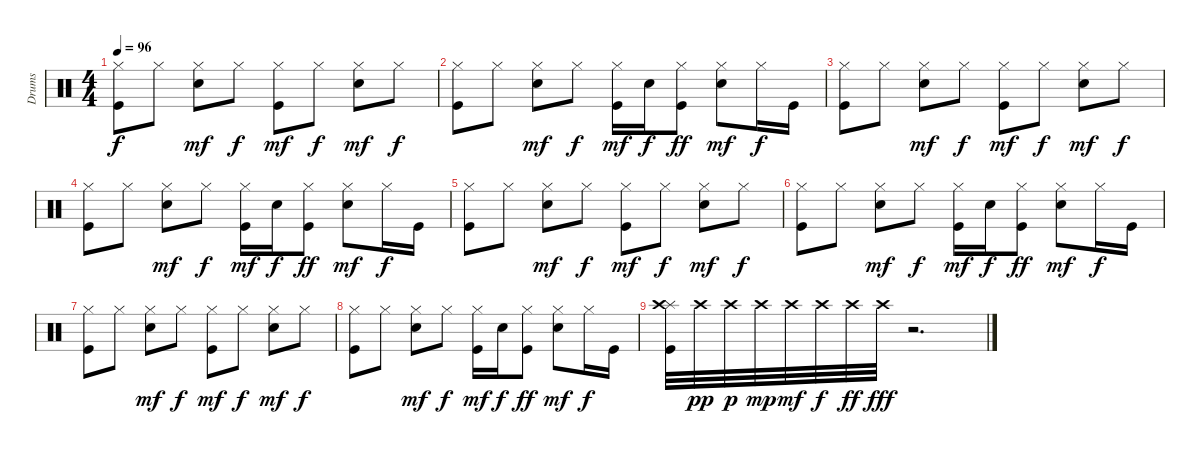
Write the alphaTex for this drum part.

\track ("Drums" "Drums") {instrument percussion}
\staff {score}
\articulation defaults
\ts (4 4)
\tempo 96
\clef neutral
\ks c
("Kick (hit)" "Hi-Hat (closed)").8{dy f} "Hi-Hat (closed)".8 ("Hi-Hat (closed)" "Electric Snare (hit)").8{dy mf} "Hi-Hat (closed)".8{dy f} ("Kick (hit)" "Hi-Hat (closed)").8{dy mf} "Hi-Hat (closed)".8{dy f} ("Hi-Hat (closed)" "Electric Snare (hit)").8{dy mf} "Hi-Hat (closed)".8{dy f} |
("Kick (hit)" "Hi-Hat (closed)").8 "Hi-Hat (closed)".8 ("Hi-Hat (closed)" "Electric Snare (hit)").8{dy mf} "Hi-Hat (closed)".8{dy f} ("Kick (hit)" "Hi-Hat (closed)").16{dy mf} "Electric Snare (hit)".16{dy f} ("Kick (hit)" "Hi-Hat (closed)").8{dy ff} ("Hi-Hat (closed)" "Electric Snare (hit)").8{dy mf} "Hi-Hat (closed)".16{dy f} "Kick (hit)".16 |
("Kick (hit)" "Hi-Hat (closed)").8 "Hi-Hat (closed)".8 ("Hi-Hat (closed)" "Electric Snare (hit)").8{dy mf} "Hi-Hat (closed)".8{dy f} ("Kick (hit)" "Hi-Hat (closed)").8{dy mf} "Hi-Hat (closed)".8{dy f} ("Hi-Hat (closed)" "Electric Snare (hit)").8{dy mf} "Hi-Hat (closed)".8{dy f} |
("Kick (hit)" "Hi-Hat (closed)").8 "Hi-Hat (closed)".8 ("Hi-Hat (closed)" "Electric Snare (hit)").8{dy mf} "Hi-Hat (closed)".8{dy f} ("Kick (hit)" "Hi-Hat (closed)").16{dy mf} "Electric Snare (hit)".16{dy f} ("Kick (hit)" "Hi-Hat (closed)").8{dy ff} ("Hi-Hat (closed)" "Electric Snare (hit)").8{dy mf} "Hi-Hat (closed)".16{dy f} "Kick (hit)".16 |
("Kick (hit)" "Hi-Hat (closed)").8 "Hi-Hat (closed)".8 ("Hi-Hat (closed)" "Electric Snare (hit)").8{dy mf} "Hi-Hat (closed)".8{dy f} ("Kick (hit)" "Hi-Hat (closed)").8{dy mf} "Hi-Hat (closed)".8{dy f} ("Hi-Hat (closed)" "Electric Snare (hit)").8{dy mf} "Hi-Hat (closed)".8{dy f} |
("Kick (hit)" "Hi-Hat (closed)").8 "Hi-Hat (closed)".8 ("Hi-Hat (closed)" "Electric Snare (hit)").8{dy mf} "Hi-Hat (closed)".8{dy f} ("Kick (hit)" "Hi-Hat (closed)").16{dy mf} "Electric Snare (hit)".16{dy f} ("Kick (hit)" "Hi-Hat (closed)").8{dy ff} ("Hi-Hat (closed)" "Electric Snare (hit)").8{dy mf} "Hi-Hat (closed)".16{dy f} "Kick (hit)".16 |
("Kick (hit)" "Hi-Hat (closed)").8 "Hi-Hat (closed)".8 ("Hi-Hat (closed)" "Electric Snare (hit)").8{dy mf} "Hi-Hat (closed)".8{dy f} ("Kick (hit)" "Hi-Hat (closed)").8{dy mf} "Hi-Hat (closed)".8{dy f} ("Hi-Hat (closed)" "Electric Snare (hit)").8{dy mf} "Hi-Hat (closed)".8{dy f} |
("Kick (hit)" "Hi-Hat (closed)").8 "Hi-Hat (closed)".8 ("Hi-Hat (closed)" "Electric Snare (hit)").8{dy mf} "Hi-Hat (closed)".8{dy f} ("Kick (hit)" "Hi-Hat (closed)").16{dy mf} "Electric Snare (hit)".16{dy f} ("Kick (hit)" "Hi-Hat (closed)").8{dy ff} ("Hi-Hat (closed)" "Electric Snare (hit)").8{dy mf} "Hi-Hat (closed)".16{dy f} "Kick (hit)".16 |
("Kick (hit)" "Splash (hit)" "Crash high (hit)").32 "Crash high (hit)".32{dy pp} "Crash high (hit)".32{dy p} "Crash high (hit)".32{dy mp} "Crash high (hit)".32{dy mf} "Crash high (hit)".32{dy f} "Crash high (hit)".32{dy ff} "Crash high (hit)".32{dy fff} r.2{d}
